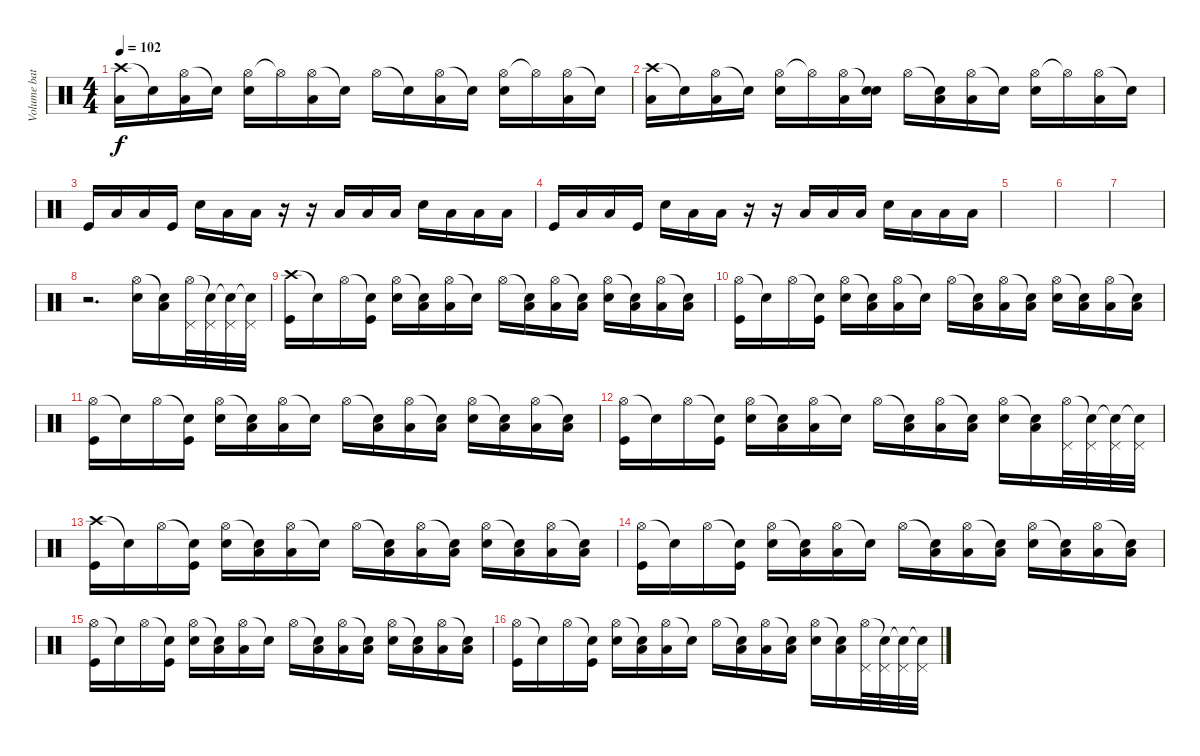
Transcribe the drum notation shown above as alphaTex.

\track ("Volume batera " "Volume bat") {instrument percussion}
\staff {score}
\articulation defaults
\ts (4 4)
\tempo 102
\clef neutral
\ks c
("Crash high (hit)" "Low Tom (hit)").16{dy f} "Snare (hit)"{t}.16 ("Hi-Hat (open)" "Low Tom (hit)").16 "Snare (hit)"{t}.16 ("Hi-Hat (open)" "Snare (hit) 2").16 "Hi-Hat (open)"{t}.16 ("Hi-Hat (open)" "Low Tom (hit)").16 "Snare (hit)"{t}.16 "Hi-Hat (open)".16 "Snare (hit)"{t}.16 ("Hi-Hat (open)" "Low Tom (hit)").16 "Snare (hit)"{t}.16 ("Hi-Hat (open)" "Snare (hit) 2").16 "Hi-Hat (open)"{t}.16 ("Hi-Hat (open)" "Low Tom (hit)").16 "Snare (hit)"{t}.16 |
("Crash high (hit)" "Low Tom (hit)").16 "Snare (hit)"{t}.16 ("Hi-Hat (open)" "Low Tom (hit)").16 "Snare (hit)"{t}.16 ("Hi-Hat (open)" "Snare (hit) 2").16 "Hi-Hat (open)"{t}.16 ("Hi-Hat (open)" "Low Tom (hit)").16 ("Snare (hit)"{t} "Snare (hit) 2").16 "Hi-Hat (open)".16 ("Snare (hit)"{t} "Low Tom (hit)").16 ("Hi-Hat (open)" "Low Tom (hit)").16 "Snare (hit)"{t}.16 ("Hi-Hat (open)" "Snare (hit) 2").16 "Hi-Hat (open)"{t}.16 ("Hi-Hat (open)" "Low Tom (hit)").16 "Snare (hit)"{t}.16 |
"Kick (hit)".16 "Low Tom (hit)".16 "Low Tom (hit)".16 "Kick (hit)".16 "Snare (hit) 2".16 "Low Tom (hit)".16 "Low Tom (hit)".16 r.16 r.16 "Low Tom (hit)".16 "Low Tom (hit)".16 "Low Tom (hit)".16 "Snare (hit) 2".16 "Low Tom (hit)".16 "Low Tom (hit)".16 "Low Tom (hit)".16 |
"Kick (hit)".16 "Low Tom (hit)".16 "Low Tom (hit)".16 "Kick (hit)".16 "Snare (hit) 2".16 "Low Tom (hit)".16 "Low Tom (hit)".16 r.16 r.16 "Low Tom (hit)".16 "Low Tom (hit)".16 "Low Tom (hit)".16 "Snare (hit) 2".16 "Low Tom (hit)".16 "Low Tom (hit)".16 "Low Tom (hit)".16 |
|
|
|
r.2{d} ("Hi-Hat (open)" "Snare (hit) 2").16 ("Snare (hit)"{t} "Low Tom (hit)").16 ("Hi-Hat (open)" "Pedal Hi-Hat (hit)").32 ("Snare (hit)"{t} "Pedal Hi-Hat (hit)").32 ("Snare (hit)"{t} "Pedal Hi-Hat (hit)").32 ("Snare (hit)"{t} "Pedal Hi-Hat (hit)").32 |
("Crash high (hit)" "Kick (hit)").16 "Snare (hit)"{t}.16 "Hi-Hat (open)".16 ("Snare (hit)"{t} "Kick (hit)").16 ("Hi-Hat (open)" "Snare (hit) 2").16 ("Snare (hit)"{t} "Low Tom (hit)").16 ("Hi-Hat (open)" "Low Tom (hit)").16 "Snare (hit)"{t}.16 "Hi-Hat (open)".16 ("Snare (hit)"{t} "Low Tom (hit)").16 ("Hi-Hat (open)" "Low Tom (hit)").16 ("Snare (hit)"{t} "Low Tom (hit)").16 ("Hi-Hat (open)" "Snare (hit) 2").16 ("Snare (hit)"{t} "Low Tom (hit)").16 ("Hi-Hat (open)" "Low Tom (hit)").16 ("Snare (hit)"{t} "Low Tom (hit)").16 |
("Hi-Hat (open)" "Kick (hit)").16 "Snare (hit)"{t}.16 "Hi-Hat (open)".16 ("Snare (hit)"{t} "Kick (hit)").16 ("Hi-Hat (open)" "Snare (hit) 2").16 ("Snare (hit)"{t} "Low Tom (hit)").16 ("Hi-Hat (open)" "Low Tom (hit)").16 "Snare (hit)"{t}.16 "Hi-Hat (open)".16 ("Snare (hit)"{t} "Low Tom (hit)").16 ("Hi-Hat (open)" "Low Tom (hit)").16 ("Snare (hit)"{t} "Low Tom (hit)").16 ("Hi-Hat (open)" "Snare (hit) 2").16 ("Snare (hit)"{t} "Low Tom (hit)").16 ("Hi-Hat (open)" "Low Tom (hit)").16 ("Snare (hit)"{t} "Low Tom (hit)").16 |
("Hi-Hat (open)" "Kick (hit)").16 "Snare (hit)"{t}.16 "Hi-Hat (open)".16 ("Snare (hit)"{t} "Kick (hit)").16 ("Hi-Hat (open)" "Snare (hit) 2").16 ("Snare (hit)"{t} "Low Tom (hit)").16 ("Hi-Hat (open)" "Low Tom (hit)").16 "Snare (hit)"{t}.16 "Hi-Hat (open)".16 ("Snare (hit)"{t} "Low Tom (hit)").16 ("Hi-Hat (open)" "Low Tom (hit)").16 ("Snare (hit)"{t} "Low Tom (hit)").16 ("Hi-Hat (open)" "Snare (hit) 2").16 ("Snare (hit)"{t} "Low Tom (hit)").16 ("Hi-Hat (open)" "Low Tom (hit)").16 ("Snare (hit)"{t} "Low Tom (hit)").16 |
("Hi-Hat (open)" "Kick (hit)").16 "Snare (hit)"{t}.16 "Hi-Hat (open)".16 ("Snare (hit)"{t} "Kick (hit)").16 ("Hi-Hat (open)" "Snare (hit) 2").16 ("Snare (hit)"{t} "Low Tom (hit)").16 ("Hi-Hat (open)" "Low Tom (hit)").16 "Snare (hit)"{t}.16 "Hi-Hat (open)".16 ("Snare (hit)"{t} "Low Tom (hit)").16 ("Hi-Hat (open)" "Low Tom (hit)").16 ("Snare (hit)"{t} "Low Tom (hit)").16 ("Hi-Hat (open)" "Snare (hit) 2").16 ("Snare (hit)"{t} "Low Tom (hit)").16 ("Hi-Hat (open)" "Pedal Hi-Hat (hit)").32 ("Snare (hit)"{t} "Pedal Hi-Hat (hit)").32 ("Snare (hit)"{t} "Pedal Hi-Hat (hit)").32 ("Snare (hit)"{t} "Pedal Hi-Hat (hit)").32 |
("Crash high (hit)" "Kick (hit)").16 "Snare (hit)"{t}.16 "Hi-Hat (open)".16 ("Snare (hit)"{t} "Kick (hit)").16 ("Hi-Hat (open)" "Snare (hit) 2").16 ("Snare (hit)"{t} "Low Tom (hit)").16 ("Hi-Hat (open)" "Low Tom (hit)").16 "Snare (hit)"{t}.16 "Hi-Hat (open)".16 ("Snare (hit)"{t} "Low Tom (hit)").16 ("Hi-Hat (open)" "Low Tom (hit)").16 ("Snare (hit)"{t} "Low Tom (hit)").16 ("Hi-Hat (open)" "Snare (hit) 2").16 ("Snare (hit)"{t} "Low Tom (hit)").16 ("Hi-Hat (open)" "Low Tom (hit)").16 ("Snare (hit)"{t} "Low Tom (hit)").16 |
("Hi-Hat (open)" "Kick (hit)").16 "Snare (hit)"{t}.16 "Hi-Hat (open)".16 ("Snare (hit)"{t} "Kick (hit)").16 ("Hi-Hat (open)" "Snare (hit) 2").16 ("Snare (hit)"{t} "Low Tom (hit)").16 ("Hi-Hat (open)" "Low Tom (hit)").16 "Snare (hit)"{t}.16 "Hi-Hat (open)".16 ("Snare (hit)"{t} "Low Tom (hit)").16 ("Hi-Hat (open)" "Low Tom (hit)").16 ("Snare (hit)"{t} "Low Tom (hit)").16 ("Hi-Hat (open)" "Snare (hit) 2").16 ("Snare (hit)"{t} "Low Tom (hit)").16 ("Hi-Hat (open)" "Low Tom (hit)").16 ("Snare (hit)"{t} "Low Tom (hit)").16 |
("Hi-Hat (open)" "Kick (hit)").16 "Snare (hit)"{t}.16 "Hi-Hat (open)".16 ("Snare (hit)"{t} "Kick (hit)").16 ("Hi-Hat (open)" "Snare (hit) 2").16 ("Snare (hit)"{t} "Low Tom (hit)").16 ("Hi-Hat (open)" "Low Tom (hit)").16 "Snare (hit)"{t}.16 "Hi-Hat (open)".16 ("Snare (hit)"{t} "Low Tom (hit)").16 ("Hi-Hat (open)" "Low Tom (hit)").16 ("Snare (hit)"{t} "Low Tom (hit)").16 ("Hi-Hat (open)" "Snare (hit) 2").16 ("Snare (hit)"{t} "Low Tom (hit)").16 ("Hi-Hat (open)" "Low Tom (hit)").16 ("Snare (hit)"{t} "Low Tom (hit)").16 |
("Hi-Hat (open)" "Kick (hit)").16 "Snare (hit)"{t}.16 "Hi-Hat (open)".16 ("Snare (hit)"{t} "Kick (hit)").16 ("Hi-Hat (open)" "Snare (hit) 2").16 ("Snare (hit)"{t} "Low Tom (hit)").16 ("Hi-Hat (open)" "Low Tom (hit)").16 "Snare (hit)"{t}.16 "Hi-Hat (open)".16 ("Snare (hit)"{t} "Low Tom (hit)").16 ("Hi-Hat (open)" "Low Tom (hit)").16 ("Snare (hit)"{t} "Low Tom (hit)").16 ("Hi-Hat (open)" "Snare (hit) 2").16 ("Snare (hit)"{t} "Low Tom (hit)").16 ("Hi-Hat (open)" "Pedal Hi-Hat (hit)").32 ("Snare (hit)"{t} "Pedal Hi-Hat (hit)").32 ("Snare (hit)"{t} "Pedal Hi-Hat (hit)").32 ("Snare (hit)"{t} "Pedal Hi-Hat (hit)").32
